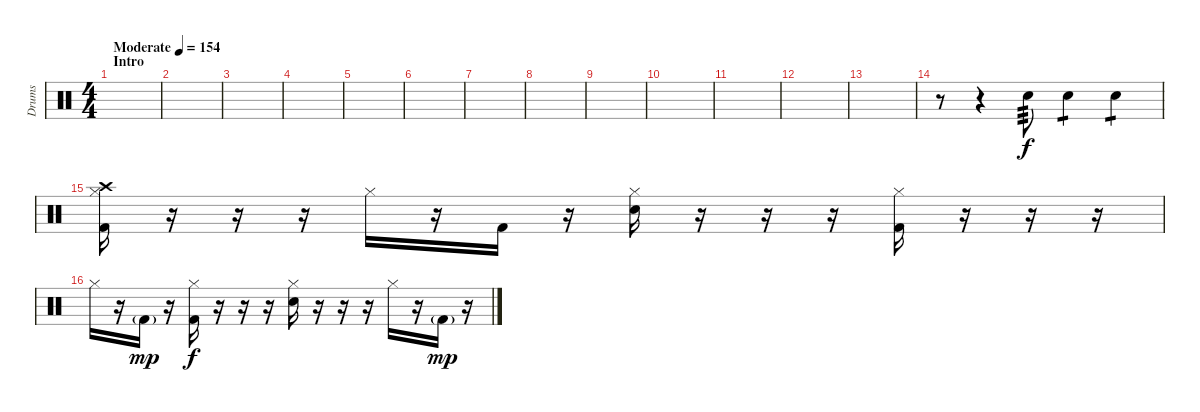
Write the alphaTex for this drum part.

\track ("Drums" "Drums") {instrument percussion}
\staff {score}
\articulation defaults
\ts (4 4)
\section ("" "Intro")
\tempo (154 "Moderate")
\clef neutral
\ks c
|
|
|
|
|
|
|
|
|
|
|
|
|
r.8 r.4 "Electric Snare (hit)".8{tp 3} "Electric Snare (hit)".4{tp 1} "Electric Snare (hit)".4{tp 1} |
("Crash high (hit)" "Hi-Hat (closed)" "Kick (hit) 2").16 r.16 r.16 r.16 "Hi-Hat (closed)".16 r.16 "Kick (hit) 2".16 r.16 ("Hi-Hat (closed)" "Electric Snare (hit)").16 r.16 r.16 r.16 ("Hi-Hat (closed)" "Kick (hit) 2").16 r.16 r.16 r.16 |
"Hi-Hat (closed)".16 r.16 "Kick (hit) 2"{g}.16{dy mp} r.16 ("Hi-Hat (closed)" "Kick (hit) 2").16{dy f} r.16 r.16 r.16 ("Hi-Hat (closed)" "Electric Snare (hit)").16 r.16 r.16 r.16 "Hi-Hat (closed)".16 r.16 "Kick (hit) 2"{g}.16{dy mp} r.16
